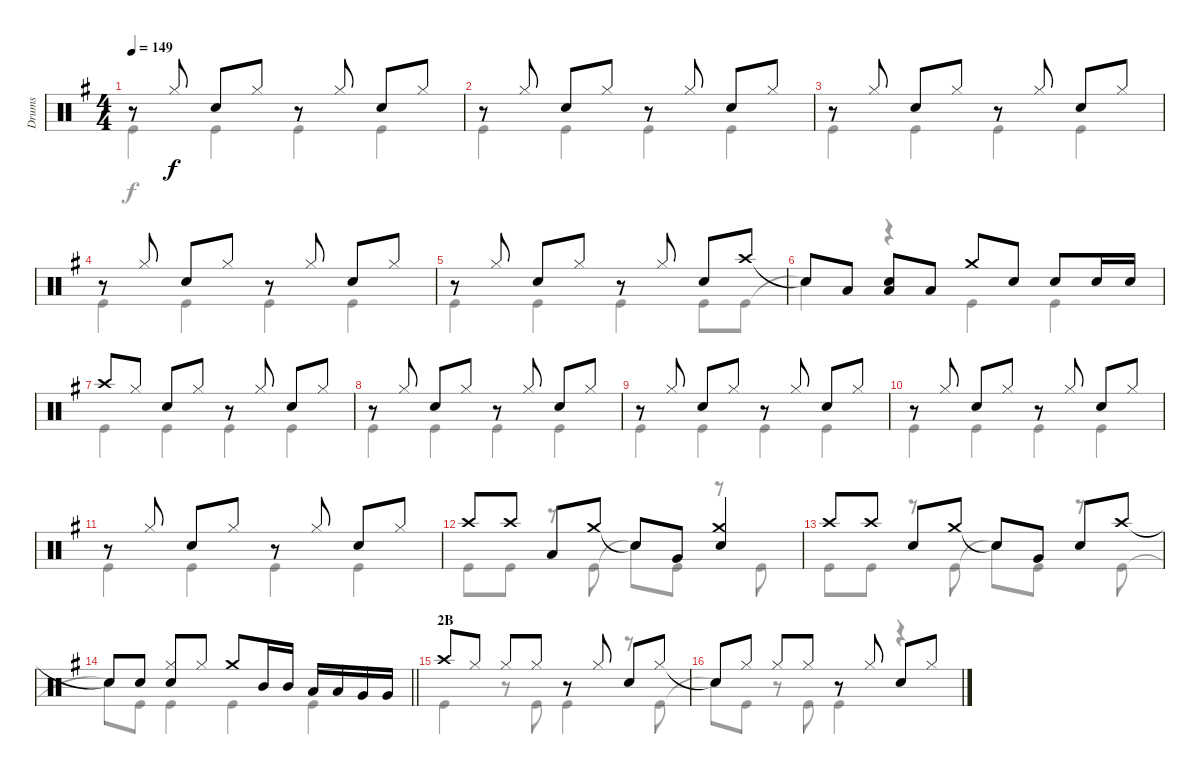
\track ("Drums" "Drums") {instrument percussion}
\staff {score}
\articulation defaults
\voice
\ts (4 4)
\tempo 149
\clef neutral
\ks g
r.8{dy f} "Hi-Hat (closed)".8 "Snare (hit) 2".8 "Hi-Hat (closed)".8 r.8 "Hi-Hat (closed)".8 "Snare (hit) 2".8 "Hi-Hat (closed)".8 |
r.8 "Hi-Hat (closed)".8 "Snare (hit) 2".8 "Hi-Hat (closed)".8 r.8 "Hi-Hat (closed)".8 "Snare (hit) 2".8 "Hi-Hat (closed)".8 |
r.8 "Hi-Hat (closed)".8 "Snare (hit) 2".8 "Hi-Hat (closed)".8 r.8 "Hi-Hat (closed)".8 "Snare (hit) 2".8 "Hi-Hat (closed)".8 |
r.8 "Hi-Hat (closed)".8 "Snare (hit) 2".8 "Hi-Hat (closed)".8 r.8 "Hi-Hat (closed)".8 "Snare (hit) 2".8 "Hi-Hat (closed)".8 |
r.8 "Hi-Hat (closed)".8 "Snare (hit) 2".8 "Hi-Hat (closed)".8 r.8 "Hi-Hat (closed)".8 "Snare (hit) 2".8 "Crash high (hit)".8 |
"Snare (hit)"{t}.8 "Low Tom (hit)".8 ("Snare (hit) 2" "Low Tom (hit)").8 "Low Tom (hit)".8 "Crash medium (hit)".8 "Snare (hit) 2".8 "Snare (hit) 2".8 "Snare (hit) 2".16 "Snare (hit) 2".16 |
"Crash high (hit)".8 "Hi-Hat (closed)".8 "Snare (hit) 2".8 "Hi-Hat (closed)".8 r.8 "Hi-Hat (closed)".8 "Snare (hit) 2".8 "Hi-Hat (closed)".8 |
r.8 "Hi-Hat (closed)".8 "Snare (hit) 2".8 "Hi-Hat (closed)".8 r.8 "Hi-Hat (closed)".8 "Snare (hit) 2".8 "Hi-Hat (closed)".8 |
r.8 "Hi-Hat (closed)".8 "Snare (hit) 2".8 "Hi-Hat (closed)".8 r.8 "Hi-Hat (closed)".8 "Snare (hit) 2".8 "Hi-Hat (closed)".8 |
r.8 "Hi-Hat (closed)".8 "Snare (hit) 2".8 "Hi-Hat (closed)".8 r.8 "Hi-Hat (closed)".8 "Snare (hit) 2".8 "Hi-Hat (closed)".8 |
r.8 "Hi-Hat (closed)".8 "Snare (hit) 2".8 "Hi-Hat (closed)".8 r.8 "Hi-Hat (closed)".8 "Snare (hit) 2".8 "Hi-Hat (closed)".8 |
"Crash high (hit)".8 "Crash high (hit)".8 "Low Tom (hit)".8 "Crash medium (hit)".8 "Snare (hit)"{t}.8 "Very Low Tom (hit)".8 ("Crash medium (hit)" "Snare (hit) 2").4 |
"Crash high (hit)".8 "Crash high (hit)".8 "Snare (hit) 2".8 "Crash medium (hit)".8 "Snare (hit)"{t}.8 "Very Low Tom (hit)".8 "Snare (hit) 2".8 "Crash high (hit)".8 |
\barLineRight lightlight "Snare (hit)"{t}.8 "Snare (hit) 2".8
("Hi-Hat (closed)" "Snare (hit) 2").8 "Hi-Hat (closed)".8 "Crash medium (hit)".8 "Mid Tom (hit)".16 "Mid Tom (hit)".16 "Low Tom (hit)".16 "Low Tom (hit)".16 "Very Low Tom (hit)".16 "Very Low Tom (hit)".16 |
\section ("" "2B")
"Crash high (hit)".8 "Hi-Hat (closed)".8 "Hi-Hat (closed)".8 "Hi-Hat (closed)".8 r.8 "Hi-Hat (closed)".8 "Snare (hit) 2".8 "Hi-Hat (closed)".8 |
"Snare (hit)"{t}.8 "Hi-Hat (closed)".8 "Hi-Hat (closed)".8 "Hi-Hat (closed)".8 r.8 "Hi-Hat (closed)".8 "Snare (hit) 2".8 "Hi-Hat (closed)".8
\voice
\clef neutral
\ottava regular
\simile none
\ks g "Kick (hit)".4{dy f} "Kick (hit)".4 "Kick (hit)".4 "Kick (hit)".4
|
"Kick (hit)".4 "Kick (hit)".4 "Kick (hit)".4 "Kick (hit)".4 |
"Kick (hit)".4 "Kick (hit)".4 "Kick (hit)".4 "Kick (hit)".4 |
"Kick (hit)".4 "Kick (hit)".4 "Kick (hit)".4 "Kick (hit)".4 |
"Kick (hit)".4 "Kick (hit)".4 "Kick (hit)".4 "Kick (hit)".8 "Kick (hit)".8 |
"Snare (hit)"{t}.4 r.4 "Kick (hit)".4 "Kick (hit)".4 |
"Kick (hit)".4 "Kick (hit)".4 "Kick (hit)".4 "Kick (hit)".4 |
"Kick (hit)".4 "Kick (hit)".4 "Kick (hit)".4 "Kick (hit)".4 |
"Kick (hit)".4 "Kick (hit)".4 "Kick (hit)".4 "Kick (hit)".4 |
"Kick (hit)".4 "Kick (hit)".4 "Kick (hit)".4 "Kick (hit)".4 |
"Kick (hit)".4 "Kick (hit)".4 "Kick (hit)".4 "Kick (hit)".4 |
"Kick (hit)".8 "Kick (hit)".8 r.8 "Kick (hit)".8 "Snare (hit)"{t}.8 "Kick (hit)".8 r.8 "Kick (hit)".8 |
"Kick (hit)".8 "Kick (hit)".8 r.8 "Kick (hit)".8 "Snare (hit)"{t}.8 "Kick (hit)".8 r.8 "Kick (hit)".8 |
\barLineRight lightlight "Snare (hit)"{t}.8 "Kick (hit)".8 "Kick (hit)".4 "Kick (hit)".4 "Kick (hit)".4
|
"Kick (hit)".4 r.8 "Kick (hit)".8 "Kick (hit)".4 r.8 "Kick (hit)".8 |
"Snare (hit)"{t}.8 "Kick (hit)".8 r.8 "Kick (hit)".8 "Kick (hit)".4 r.4
